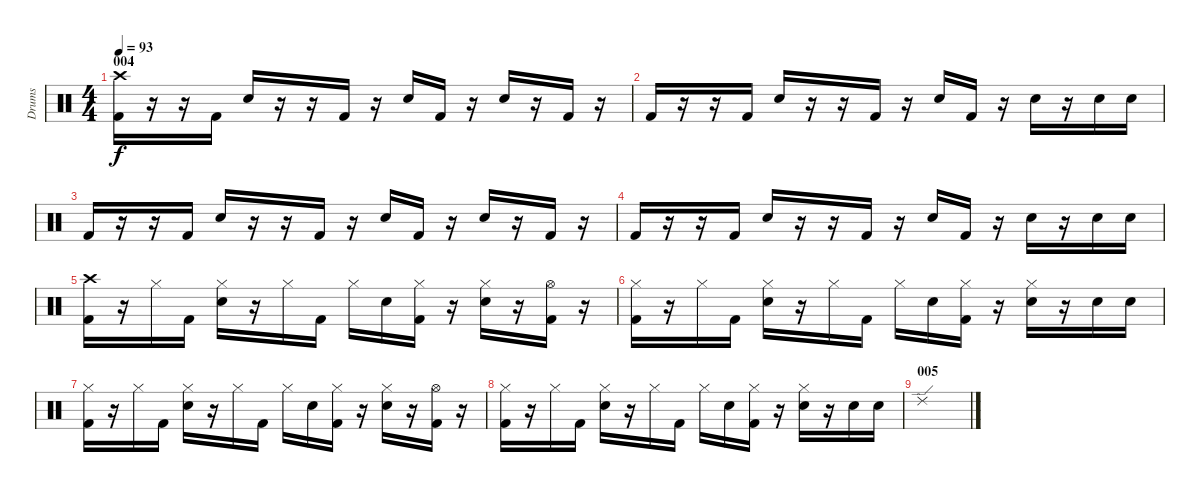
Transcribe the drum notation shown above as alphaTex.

\track ("Drums" "Drums") {instrument percussion}
\staff {score}
\articulation defaults
\ts (4 4)
\section ("" "004")
\tempo 93
\clef neutral
\ks c
("Crash high (hit)" "Kick (hit) 2").16{dy f} r.16 r.16 "Kick (hit) 2".16 "Electric Snare (hit)".16 r.16 r.16 "Kick (hit) 2".16 r.16 "Electric Snare (hit)".16 "Kick (hit) 2".16 r.16 "Electric Snare (hit)".16 r.16 "Kick (hit) 2".16 r.16 |
"Kick (hit) 2".16 r.16 r.16 "Kick (hit) 2".16 "Electric Snare (hit)".16 r.16 r.16 "Kick (hit) 2".16 r.16 "Electric Snare (hit)".16 "Kick (hit) 2".16 r.16 "Electric Snare (hit)".16 r.16 "Electric Snare (hit)".16 "Electric Snare (hit)".16 |
"Kick (hit) 2".16 r.16 r.16 "Kick (hit) 2".16 "Electric Snare (hit)".16 r.16 r.16 "Kick (hit) 2".16 r.16 "Electric Snare (hit)".16 "Kick (hit) 2".16 r.16 "Electric Snare (hit)".16 r.16 "Kick (hit) 2".16 r.16 |
"Kick (hit) 2".16 r.16 r.16 "Kick (hit) 2".16 "Electric Snare (hit)".16 r.16 r.16 "Kick (hit) 2".16 r.16 "Electric Snare (hit)".16 "Kick (hit) 2".16 r.16 "Electric Snare (hit)".16 r.16 "Electric Snare (hit)".16 "Electric Snare (hit)".16 |
("Crash high (hit)" "Kick (hit) 2").16 r.16 "Hi-Hat (closed)".16 "Kick (hit) 2".16 ("Hi-Hat (closed)" "Electric Snare (hit)").16 r.16 "Hi-Hat (closed)".16 "Kick (hit) 2".16 "Hi-Hat (closed)".16 "Electric Snare (hit)".16 ("Hi-Hat (closed)" "Kick (hit) 2").16 r.16 ("Hi-Hat (closed)" "Electric Snare (hit)").16 r.16 ("Hi-Hat (open)" "Kick (hit) 2").16 r.16 |
("Hi-Hat (closed)" "Kick (hit) 2").16 r.16 "Hi-Hat (closed)".16 "Kick (hit) 2".16 ("Hi-Hat (closed)" "Electric Snare (hit)").16 r.16 "Hi-Hat (closed)".16 "Kick (hit) 2".16 "Hi-Hat (closed)".16 "Electric Snare (hit)".16 ("Hi-Hat (closed)" "Kick (hit) 2").16 r.16 ("Hi-Hat (closed)" "Electric Snare (hit)").16 r.16 "Electric Snare (hit)".16 "Electric Snare (hit)".16 |
("Hi-Hat (closed)" "Kick (hit) 2").16 r.16 "Hi-Hat (closed)".16 "Kick (hit) 2".16 ("Hi-Hat (closed)" "Electric Snare (hit)").16 r.16 "Hi-Hat (closed)".16 "Kick (hit) 2".16 "Hi-Hat (closed)".16 "Electric Snare (hit)".16 ("Hi-Hat (closed)" "Kick (hit) 2").16 r.16 ("Hi-Hat (closed)" "Electric Snare (hit)").16 r.16 ("Hi-Hat (open)" "Kick (hit) 2").16 r.16 |
("Hi-Hat (closed)" "Kick (hit) 2").16 r.16 "Hi-Hat (closed)".16 "Kick (hit) 2".16 ("Hi-Hat (closed)" "Electric Snare (hit)").16 r.16 "Hi-Hat (closed)".16 "Kick (hit) 2".16 "Hi-Hat (closed)".16 "Electric Snare (hit)".16 ("Hi-Hat (closed)" "Kick (hit) 2").16 r.16 ("Hi-Hat (closed)" "Electric Snare (hit)").16 r.16 "Electric Snare (hit)".16 "Electric Snare (hit)".16 |
\section ("" "005")
"Ride (edge) 2".1
